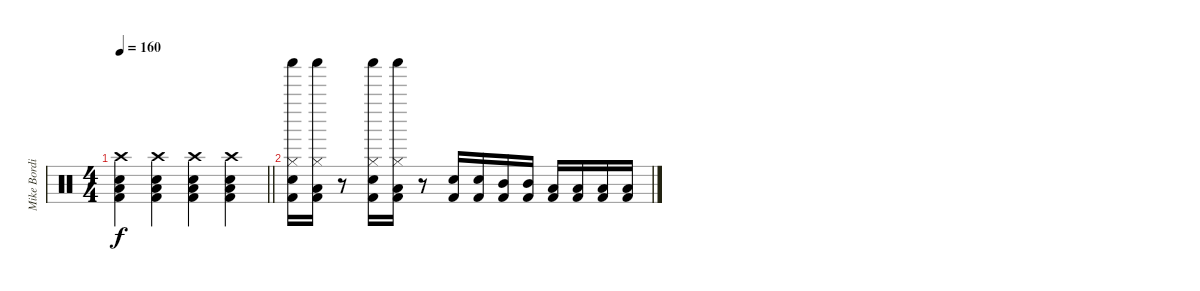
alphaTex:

\track ("Mike Bordin - Percussion" "Mike Bordi") {instrument percussion}
\staff {score}
\articulation defaults
\ts (4 4)
\tempo 160
\clef neutral
\barLineRight lightlight
\ks c
("Crash high (hit)" "Snare (hit) 2" "Low Floor Tom (hit)" "Kick (hit) 2").4{dy f} ("Crash high (hit)" "Snare (hit) 2" "Low Floor Tom (hit)" "Kick (hit) 2").4 ("Crash high (hit)" "Snare (hit) 2" "Low Floor Tom (hit)" "Kick (hit) 2").4 ("Crash high (hit)" "Snare (hit) 2" "Low Floor Tom (hit)" "Kick (hit) 2").4 |
("Snare (hit) 2" "Hi-Hat (closed)" "Shaker (hit)" "Kick (hit) 2").16 ("Low Tom (hit)" "Hi-Hat (closed)" "Shaker (hit)" "Kick (hit) 2").16 r.8 ("Snare (hit) 2" "Hi-Hat (closed)" "Shaker (hit)" "Kick (hit) 2").16 ("Low Tom (hit)" "Hi-Hat (closed)" "Shaker (hit)" "Kick (hit) 2").16 r.8 ("Snare (hit) 2" "Kick (hit) 2").16 ("Snare (hit) 2" "Kick (hit) 2").16 ("Mid Tom (hit)" "Kick (hit) 2").16 ("Mid Tom (hit)" "Kick (hit) 2").16 ("Low Tom (hit)" "Kick (hit) 2").16 ("Low Tom (hit)" "Kick (hit) 2").16 ("Low Floor Tom (hit)" "Kick (hit) 2").16 ("Low Floor Tom (hit)" "Kick (hit) 2").16
